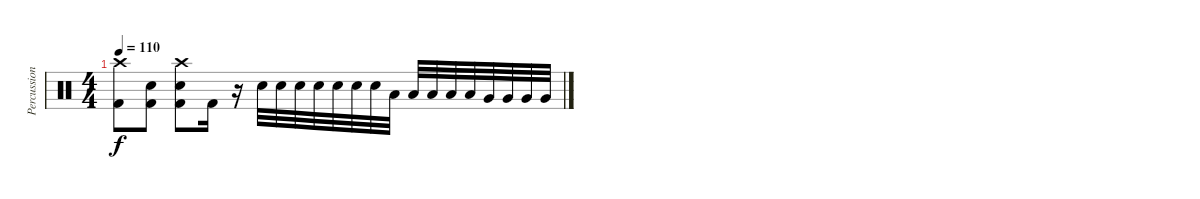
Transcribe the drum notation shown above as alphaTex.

\track ("Percussion" "Percussion") {instrument percussion}
\staff {score}
\articulation defaults
\ts (4 4)
\tempo 110
\clef neutral
\ks c
("Crash high (hit)" "Kick (hit) 2").8{dy f} ("Electric Snare (hit)" "Kick (hit) 2").8 ("Crash high (hit)" "Electric Snare (hit)" "Kick (hit) 2").8 "Kick (hit) 2".16 r.16 "Electric Snare (hit)".32 "Electric Snare (hit)".32 "Electric Snare (hit)".32 "Electric Snare (hit)".32 "Electric Snare (hit)".32 "Electric Snare (hit)".32 "Electric Snare (hit)".32 "Low Tom (hit)".32 "Low Tom (hit)".32 "Low Tom (hit)".32 "Low Tom (hit)".32 "Low Tom (hit)".32 "Very Low Tom (hit)".32 "Very Low Tom (hit)".32 "Very Low Tom (hit)".32 "Very Low Tom (hit)".32
